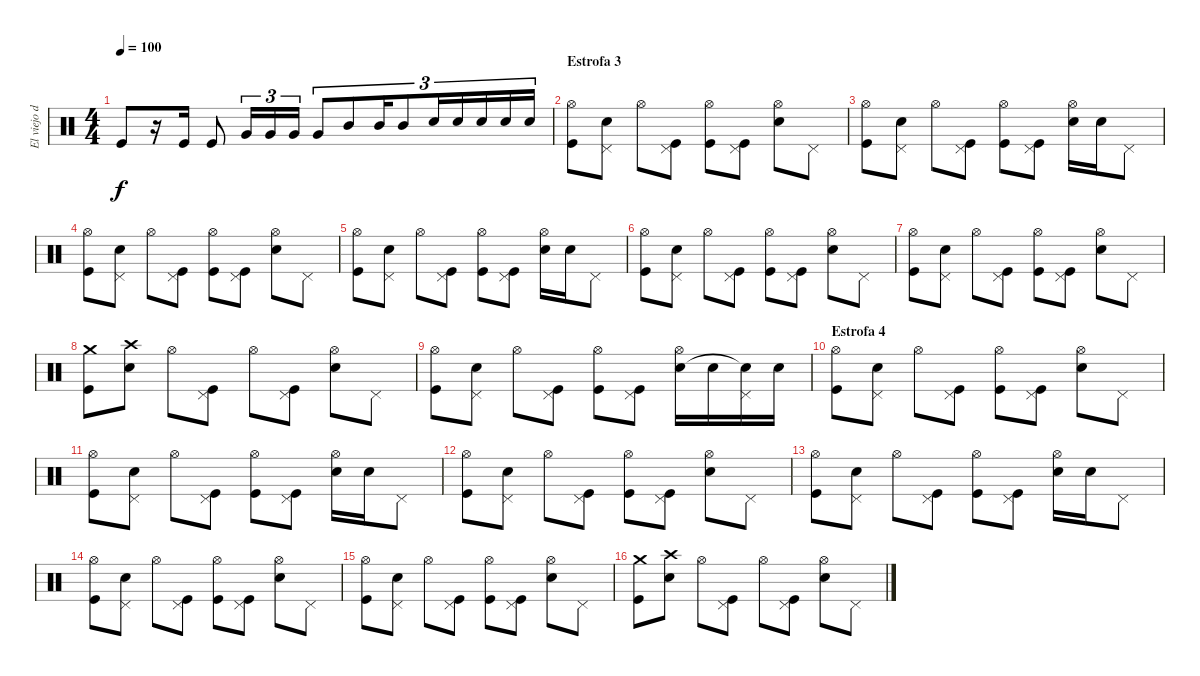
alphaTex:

\track ("El viejo del baston" "El viejo d") {instrument percussion}
\staff {score}
\articulation defaults
\ts (4 4)
\tempo 100
\clef neutral
\ks c "Kick (hit)".8{dy f}
r.16 "Kick (hit)".16 "Kick (hit)".8 "Very Low Tom (hit)".16{tu (3 2)} "Very Low Tom (hit)".16{tu (3 2)} "Very Low Tom (hit)".16{tu (3 2)} "Very Low Tom (hit)".8{tu (3 2)} "Mid Tom (hit)".8{tu (3 2)} "Mid Tom (hit)".16{tu (3 2)} "Mid Tom (hit)".8{tu (3 2)} "Snare (hit) 2".16{tu (3 2)} "Snare (hit) 2".16{tu (3 2)} "Snare (hit) 2".16{tu (3 2)} "Snare (hit) 2".16{tu (3 2)} "Snare (hit) 2".16{tu (3 2)} |
\section ("" "Estrofa 3")
("Hi-Hat (open)" "Kick (hit)").8 ("Pedal Hi-Hat (hit)" "Snare (hit) 2").8 "Hi-Hat (open)".8 ("Pedal Hi-Hat (hit)" "Kick (hit)").8 ("Hi-Hat (open)" "Kick (hit)").8 ("Pedal Hi-Hat (hit)" "Kick (hit)").8 ("Hi-Hat (open)" "Snare (hit) 2").8 "Pedal Hi-Hat (hit)".8 |
("Hi-Hat (open)" "Kick (hit)").8 ("Pedal Hi-Hat (hit)" "Snare (hit) 2").8 "Hi-Hat (open)".8 ("Pedal Hi-Hat (hit)" "Kick (hit)").8 ("Hi-Hat (open)" "Kick (hit)").8 ("Pedal Hi-Hat (hit)" "Kick (hit)").8 ("Hi-Hat (open)" "Snare (hit) 2").16 "Snare (hit) 2".16 "Pedal Hi-Hat (hit)".8 |
("Hi-Hat (open)" "Kick (hit)").8 ("Pedal Hi-Hat (hit)" "Snare (hit) 2").8 "Hi-Hat (open)".8 ("Pedal Hi-Hat (hit)" "Kick (hit)").8 ("Hi-Hat (open)" "Kick (hit)").8 ("Pedal Hi-Hat (hit)" "Kick (hit)").8 ("Hi-Hat (open)" "Snare (hit) 2").8 "Pedal Hi-Hat (hit)".8 |
("Hi-Hat (open)" "Kick (hit)").8 ("Pedal Hi-Hat (hit)" "Snare (hit) 2").8 "Hi-Hat (open)".8 ("Pedal Hi-Hat (hit)" "Kick (hit)").8 ("Hi-Hat (open)" "Kick (hit)").8 ("Pedal Hi-Hat (hit)" "Kick (hit)").8 ("Hi-Hat (open)" "Snare (hit) 2").16 "Snare (hit) 2".16 "Pedal Hi-Hat (hit)".8 |
("Hi-Hat (open)" "Kick (hit)").8 ("Pedal Hi-Hat (hit)" "Snare (hit) 2").8 "Hi-Hat (open)".8 ("Pedal Hi-Hat (hit)" "Kick (hit)").8 ("Hi-Hat (open)" "Kick (hit)").8 ("Pedal Hi-Hat (hit)" "Kick (hit)").8 ("Hi-Hat (open)" "Snare (hit) 2").8 "Pedal Hi-Hat (hit)".8 |
("Hi-Hat (open)" "Kick (hit)").8 ("Pedal Hi-Hat (hit)" "Snare (hit) 2").8 "Hi-Hat (open)".8 ("Pedal Hi-Hat (hit)" "Kick (hit)").8 ("Hi-Hat (open)" "Kick (hit)").8 ("Pedal Hi-Hat (hit)" "Kick (hit)").8 ("Hi-Hat (open)" "Snare (hit) 2").8 "Pedal Hi-Hat (hit)".8 |
("Crash medium (hit)" "Kick (hit)").8 ("Crash high (hit)" "Snare (hit) 2").8 "Hi-Hat (open)".8 ("Pedal Hi-Hat (hit)" "Kick (hit)").8 "Hi-Hat (open)".8 ("Pedal Hi-Hat (hit)" "Kick (hit)").8 ("Hi-Hat (open)" "Snare (hit) 2").8 "Pedal Hi-Hat (hit)".8 |
("Hi-Hat (open)" "Kick (hit)").8 ("Pedal Hi-Hat (hit)" "Snare (hit) 2").8 "Hi-Hat (open)".8 ("Pedal Hi-Hat (hit)" "Kick (hit)").8 ("Hi-Hat (open)" "Kick (hit)").8 ("Pedal Hi-Hat (hit)" "Kick (hit)").8 ("Hi-Hat (open)" "Snare (hit) 2").16 "Snare (hit) 2".16 ("Pedal Hi-Hat (hit)" "Snare (hit) 2"{t}).16 "Snare (hit) 2".16 |
\section ("" "Estrofa 4")
("Hi-Hat (open)" "Kick (hit)").8 ("Pedal Hi-Hat (hit)" "Snare (hit) 2").8 "Hi-Hat (open)".8 ("Pedal Hi-Hat (hit)" "Kick (hit)").8 ("Hi-Hat (open)" "Kick (hit)").8 ("Pedal Hi-Hat (hit)" "Kick (hit)").8 ("Hi-Hat (open)" "Snare (hit) 2").8 "Pedal Hi-Hat (hit)".8 |
("Hi-Hat (open)" "Kick (hit)").8 ("Pedal Hi-Hat (hit)" "Snare (hit) 2").8 "Hi-Hat (open)".8 ("Pedal Hi-Hat (hit)" "Kick (hit)").8 ("Hi-Hat (open)" "Kick (hit)").8 ("Pedal Hi-Hat (hit)" "Kick (hit)").8 ("Hi-Hat (open)" "Snare (hit) 2").16 "Snare (hit) 2".16 "Pedal Hi-Hat (hit)".8 |
("Hi-Hat (open)" "Kick (hit)").8 ("Pedal Hi-Hat (hit)" "Snare (hit) 2").8 "Hi-Hat (open)".8 ("Pedal Hi-Hat (hit)" "Kick (hit)").8 ("Hi-Hat (open)" "Kick (hit)").8 ("Pedal Hi-Hat (hit)" "Kick (hit)").8 ("Hi-Hat (open)" "Snare (hit) 2").8 "Pedal Hi-Hat (hit)".8 |
("Hi-Hat (open)" "Kick (hit)").8 ("Pedal Hi-Hat (hit)" "Snare (hit) 2").8 "Hi-Hat (open)".8 ("Pedal Hi-Hat (hit)" "Kick (hit)").8 ("Hi-Hat (open)" "Kick (hit)").8 ("Pedal Hi-Hat (hit)" "Kick (hit)").8 ("Hi-Hat (open)" "Snare (hit) 2").16 "Snare (hit) 2".16 "Pedal Hi-Hat (hit)".8 |
("Hi-Hat (open)" "Kick (hit)").8 ("Pedal Hi-Hat (hit)" "Snare (hit) 2").8 "Hi-Hat (open)".8 ("Pedal Hi-Hat (hit)" "Kick (hit)").8 ("Hi-Hat (open)" "Kick (hit)").8 ("Pedal Hi-Hat (hit)" "Kick (hit)").8 ("Hi-Hat (open)" "Snare (hit) 2").8 "Pedal Hi-Hat (hit)".8 |
("Hi-Hat (open)" "Kick (hit)").8 ("Pedal Hi-Hat (hit)" "Snare (hit) 2").8 "Hi-Hat (open)".8 ("Pedal Hi-Hat (hit)" "Kick (hit)").8 ("Hi-Hat (open)" "Kick (hit)").8 ("Pedal Hi-Hat (hit)" "Kick (hit)").8 ("Hi-Hat (open)" "Snare (hit) 2").8 "Pedal Hi-Hat (hit)".8 |
("Crash medium (hit)" "Kick (hit)").8 ("Crash high (hit)" "Snare (hit) 2").8 "Hi-Hat (open)".8 ("Pedal Hi-Hat (hit)" "Kick (hit)").8 "Hi-Hat (open)".8 ("Pedal Hi-Hat (hit)" "Kick (hit)").8 ("Hi-Hat (open)" "Snare (hit) 2").8 "Pedal Hi-Hat (hit)".8
